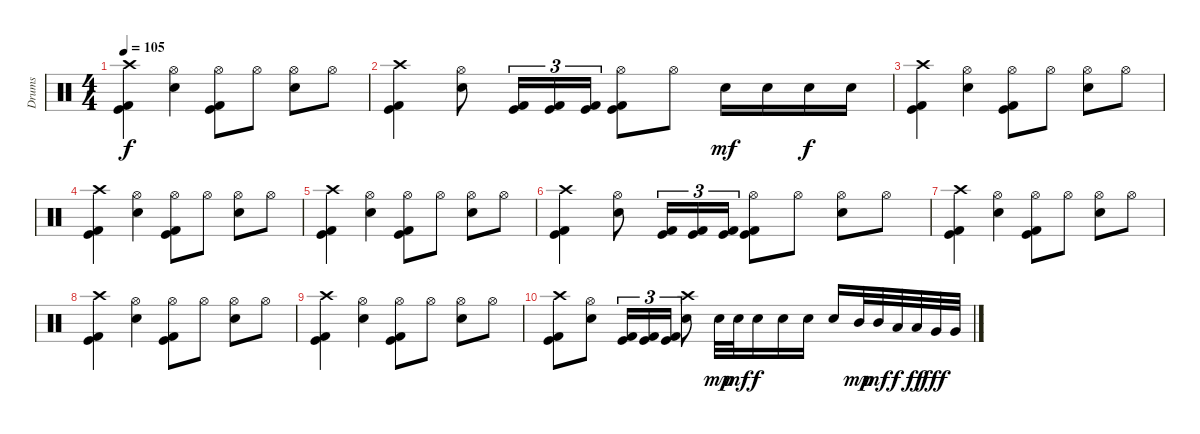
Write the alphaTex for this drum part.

\track ("Drums" "Drums") {instrument percussion}
\staff {score}
\articulation defaults
\ts (4 4)
\tempo 105
\clef neutral
\ks c
("Crash high (hit)" "Kick (hit) 2" "Kick (hit)").4{dy f} ("Hi-Hat (open)" "Snare (hit) 2").4 ("Hi-Hat (open)" "Kick (hit) 2" "Kick (hit)").8 "Hi-Hat (open)".8 ("Hi-Hat (open)" "Snare (hit) 2").8 "Hi-Hat (open)".8 |
("Crash high (hit)" "Kick (hit) 2" "Kick (hit)").4 ("Hi-Hat (open)" "Snare (hit) 2").8 ("Kick (hit) 2" "Kick (hit)").16{tu (3 2)} ("Kick (hit) 2" "Kick (hit)").16{tu (3 2)} ("Kick (hit) 2" "Kick (hit)").16{tu (3 2)} ("Hi-Hat (open)" "Kick (hit) 2" "Kick (hit)").8 "Hi-Hat (open)".8 "Snare (hit) 2".16{dy mf} "Snare (hit) 2".16 "Snare (hit) 2".16{dy f} "Snare (hit) 2".16 |
("Crash high (hit)" "Kick (hit) 2" "Kick (hit)").4 ("Hi-Hat (open)" "Snare (hit) 2").4 ("Hi-Hat (open)" "Kick (hit) 2" "Kick (hit)").8 "Hi-Hat (open)".8 ("Hi-Hat (open)" "Snare (hit) 2").8 "Hi-Hat (open)".8 |
("Crash high (hit)" "Kick (hit) 2" "Kick (hit)").4 ("Hi-Hat (open)" "Snare (hit) 2").4 ("Hi-Hat (open)" "Kick (hit) 2" "Kick (hit)").8 "Hi-Hat (open)".8 ("Hi-Hat (open)" "Snare (hit) 2").8 "Hi-Hat (open)".8 |
("Crash high (hit)" "Kick (hit) 2" "Kick (hit)").4 ("Hi-Hat (open)" "Snare (hit) 2").4 ("Hi-Hat (open)" "Kick (hit) 2" "Kick (hit)").8 "Hi-Hat (open)".8 ("Hi-Hat (open)" "Snare (hit) 2").8 "Hi-Hat (open)".8 |
("Crash high (hit)" "Kick (hit) 2" "Kick (hit)").4 ("Hi-Hat (open)" "Snare (hit) 2").8 ("Kick (hit) 2" "Kick (hit)").16{tu (3 2)} ("Kick (hit) 2" "Kick (hit)").16{tu (3 2)} ("Kick (hit) 2" "Kick (hit)").16{tu (3 2)} ("Hi-Hat (open)" "Kick (hit) 2" "Kick (hit)").8 "Hi-Hat (open)".8 ("Hi-Hat (open)" "Snare (hit) 2").8 "Hi-Hat (open)".8 |
("Crash high (hit)" "Kick (hit) 2" "Kick (hit)").4 ("Hi-Hat (open)" "Snare (hit) 2").4 ("Hi-Hat (open)" "Kick (hit) 2" "Kick (hit)").8 "Hi-Hat (open)".8 ("Hi-Hat (open)" "Snare (hit) 2").8 "Hi-Hat (open)".8 |
("Crash high (hit)" "Kick (hit) 2" "Kick (hit)").4 ("Hi-Hat (open)" "Snare (hit) 2").4 ("Hi-Hat (open)" "Kick (hit) 2" "Kick (hit)").8 "Hi-Hat (open)".8 ("Hi-Hat (open)" "Snare (hit) 2").8 "Hi-Hat (open)".8 |
("Crash high (hit)" "Kick (hit) 2" "Kick (hit)").4 ("Hi-Hat (open)" "Snare (hit) 2").4 ("Hi-Hat (open)" "Kick (hit) 2" "Kick (hit)").8 "Hi-Hat (open)".8 ("Hi-Hat (open)" "Snare (hit) 2").8 "Hi-Hat (open)".8 |
("Crash high (hit)" "Kick (hit) 2" "Kick (hit)").8 ("Hi-Hat (open)" "Snare (hit) 2").8 ("Kick (hit) 2" "Kick (hit)").16{tu (3 2)} ("Kick (hit) 2" "Kick (hit)").16{tu (3 2)} ("Kick (hit) 2" "Kick (hit)").16{tu (3 2)} ("Crash high (hit)" "Snare (hit) 2").8 "Snare (hit) 2".32{dy mp} "Snare (hit) 2".32{dy mf} "Snare (hit) 2".16{dy f} "Snare (hit) 2".16 "Snare (hit) 2".16 "Snare (hit) 2".16 "Mid Tom (hit)".32{dy mp} "Mid Tom (hit)".32{dy mf} "Low Tom (hit)".32{dy f} "Low Tom (hit)".32{dy ff} "Very Low Tom (hit)".32{dy fff} "Very Low Tom (hit)".32
